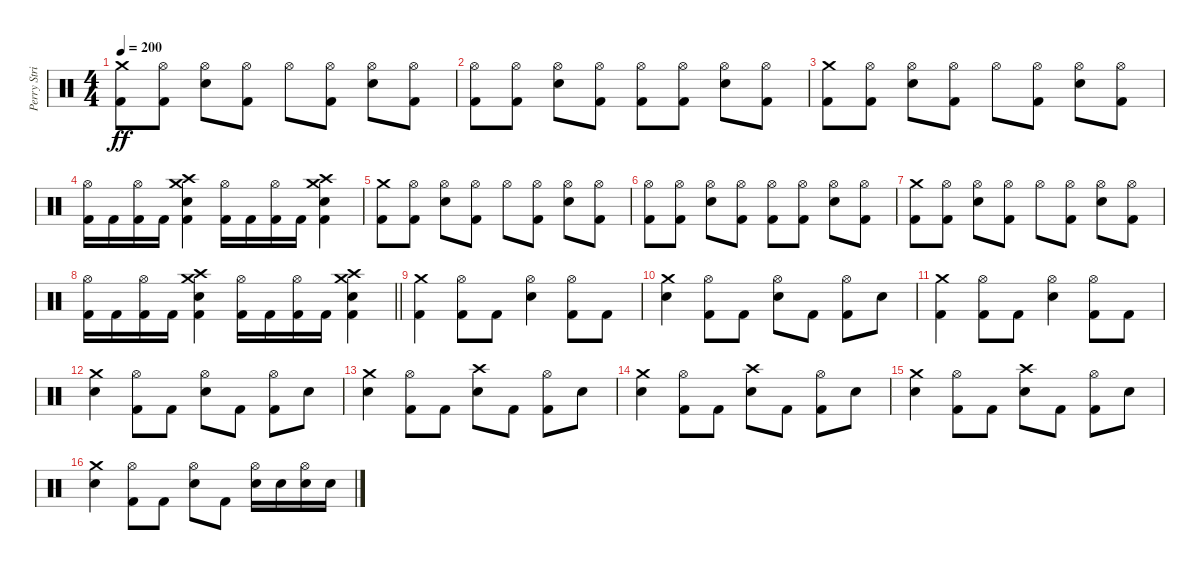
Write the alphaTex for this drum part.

\track ("Perry Strickland" "Perry Stri") {instrument percussion}
\staff {score}
\articulation defaults
\ts (4 4)
\tempo 200
\clef neutral
\ks c
("Crash medium (hit)" "Kick (hit) 2").8{dy ff} ("Hi-Hat (open)" "Kick (hit) 2").8 ("Hi-Hat (open)" "Snare (hit) 2").8 ("Hi-Hat (open)" "Kick (hit) 2").8 "Hi-Hat (open)".8 ("Hi-Hat (open)" "Kick (hit) 2").8 ("Hi-Hat (open)" "Snare (hit) 2").8 ("Hi-Hat (open)" "Kick (hit) 2").8 |
("Hi-Hat (open)" "Kick (hit) 2").8 ("Hi-Hat (open)" "Kick (hit) 2").8 ("Hi-Hat (open)" "Snare (hit) 2").8 ("Hi-Hat (open)" "Kick (hit) 2").8 ("Hi-Hat (open)" "Kick (hit) 2").8 ("Hi-Hat (open)" "Kick (hit) 2").8 ("Hi-Hat (open)" "Snare (hit) 2").8 ("Hi-Hat (open)" "Kick (hit) 2").8 |
("Crash medium (hit)" "Kick (hit) 2").8 ("Hi-Hat (open)" "Kick (hit) 2").8 ("Hi-Hat (open)" "Snare (hit) 2").8 ("Hi-Hat (open)" "Kick (hit) 2").8 "Hi-Hat (open)".8 ("Hi-Hat (open)" "Kick (hit) 2").8 ("Hi-Hat (open)" "Snare (hit) 2").8 ("Hi-Hat (open)" "Kick (hit) 2").8 |
("Hi-Hat (open)" "Kick (hit) 2").16 "Kick (hit) 2".16 ("Hi-Hat (open)" "Kick (hit) 2").16 "Kick (hit) 2".16 ("Crash high (hit)" "Crash medium (hit)" "Snare (hit) 2" "Kick (hit) 2").4 ("Hi-Hat (open)" "Kick (hit) 2").16 "Kick (hit) 2".16 ("Hi-Hat (open)" "Kick (hit) 2").16 "Kick (hit) 2".16 ("Crash high (hit)" "Crash medium (hit)" "Snare (hit) 2" "Kick (hit) 2").4 |
("Crash medium (hit)" "Kick (hit) 2").8 ("Hi-Hat (open)" "Kick (hit) 2").8 ("Hi-Hat (open)" "Snare (hit) 2").8 ("Hi-Hat (open)" "Kick (hit) 2").8 "Hi-Hat (open)".8 ("Hi-Hat (open)" "Kick (hit) 2").8 ("Hi-Hat (open)" "Snare (hit) 2").8 ("Hi-Hat (open)" "Kick (hit) 2").8 |
("Hi-Hat (open)" "Kick (hit) 2").8 ("Hi-Hat (open)" "Kick (hit) 2").8 ("Hi-Hat (open)" "Snare (hit) 2").8 ("Hi-Hat (open)" "Kick (hit) 2").8 ("Hi-Hat (open)" "Kick (hit) 2").8 ("Hi-Hat (open)" "Kick (hit) 2").8 ("Hi-Hat (open)" "Snare (hit) 2").8 ("Hi-Hat (open)" "Kick (hit) 2").8 |
("Crash medium (hit)" "Kick (hit) 2").8 ("Hi-Hat (open)" "Kick (hit) 2").8 ("Hi-Hat (open)" "Snare (hit) 2").8 ("Hi-Hat (open)" "Kick (hit) 2").8 "Hi-Hat (open)".8 ("Hi-Hat (open)" "Kick (hit) 2").8 ("Hi-Hat (open)" "Snare (hit) 2").8 ("Hi-Hat (open)" "Kick (hit) 2").8 |
\barLineRight lightlight
("Hi-Hat (open)" "Kick (hit) 2").16 "Kick (hit) 2".16 ("Hi-Hat (open)" "Kick (hit) 2").16 "Kick (hit) 2".16 ("Crash high (hit)" "Crash medium (hit)" "Snare (hit) 2" "Kick (hit) 2").4 ("Hi-Hat (open)" "Kick (hit) 2").16 "Kick (hit) 2".16 ("Hi-Hat (open)" "Kick (hit) 2").16 "Kick (hit) 2".16 ("Crash high (hit)" "Crash medium (hit)" "Snare (hit) 2" "Kick (hit) 2").4 |
("Crash medium (hit)" "Kick (hit) 2").4 ("Hi-Hat (open)" "Kick (hit) 2").8 "Kick (hit) 2".8 ("Hi-Hat (open)" "Snare (hit) 2").4 ("Hi-Hat (open)" "Kick (hit) 2").8 "Kick (hit) 2".8 |
("Crash medium (hit)" "Snare (hit) 2").4 ("Hi-Hat (open)" "Kick (hit) 2").8 "Kick (hit) 2".8 ("Hi-Hat (open)" "Snare (hit) 2").8 "Kick (hit) 2".8 ("Hi-Hat (open)" "Kick (hit) 2").8 "Snare (hit) 2".8 |
("Crash medium (hit)" "Kick (hit) 2").4 ("Hi-Hat (open)" "Kick (hit) 2").8 "Kick (hit) 2".8 ("Hi-Hat (open)" "Snare (hit) 2").4 ("Hi-Hat (open)" "Kick (hit) 2").8 "Kick (hit) 2".8 |
("Crash medium (hit)" "Snare (hit) 2").4 ("Hi-Hat (open)" "Kick (hit) 2").8 "Kick (hit) 2".8 ("Hi-Hat (open)" "Snare (hit) 2").8 "Kick (hit) 2".8 ("Hi-Hat (open)" "Kick (hit) 2").8 "Snare (hit) 2".8 |
("Crash medium (hit)" "Snare (hit) 2").4 ("Hi-Hat (open)" "Kick (hit) 2").8 "Kick (hit) 2".8 ("Crash high (hit)" "Snare (hit) 2").8 "Kick (hit) 2".8 ("Hi-Hat (open)" "Kick (hit) 2").8 "Snare (hit) 2".8 |
("Crash medium (hit)" "Snare (hit) 2").4 ("Hi-Hat (open)" "Kick (hit) 2").8 "Kick (hit) 2".8 ("Crash high (hit)" "Snare (hit) 2").8 "Kick (hit) 2".8 ("Hi-Hat (open)" "Kick (hit) 2").8 "Snare (hit) 2".8 |
("Crash medium (hit)" "Snare (hit) 2").4 ("Hi-Hat (open)" "Kick (hit) 2").8 "Kick (hit) 2".8 ("Crash high (hit)" "Snare (hit) 2").8 "Kick (hit) 2".8 ("Hi-Hat (open)" "Kick (hit) 2").8 "Snare (hit) 2".8 |
("Crash medium (hit)" "Snare (hit) 2").4 ("Hi-Hat (open)" "Kick (hit) 2").8 "Kick (hit) 2".8 ("Hi-Hat (open)" "Snare (hit) 2").8 "Kick (hit) 2".8 ("Hi-Hat (open)" "Snare (hit) 2").16 "Snare (hit) 2".16 ("Hi-Hat (open)" "Snare (hit) 2").16 "Snare (hit) 2".16
